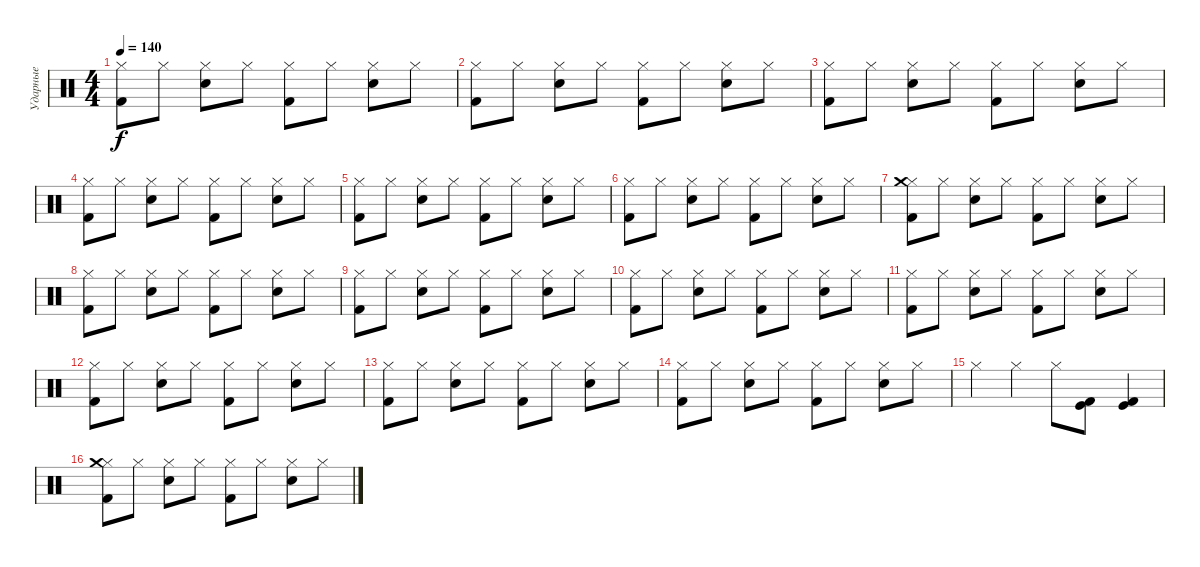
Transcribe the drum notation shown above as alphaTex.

\track ("Ударные" "Ударные") {instrument percussion}
\staff {score}
\articulation defaults
\ts (4 4)
\tempo 140
\clef neutral
\ks c
("Hi-Hat (closed)" "Kick (hit) 2").8{dy f} "Hi-Hat (closed)".8 ("Hi-Hat (closed)" "Snare (hit) 2").8 "Hi-Hat (closed)".8 ("Hi-Hat (closed)" "Kick (hit) 2").8 "Hi-Hat (closed)".8 ("Hi-Hat (closed)" "Snare (hit) 2").8 "Hi-Hat (closed)".8 |
("Hi-Hat (closed)" "Kick (hit) 2").8 "Hi-Hat (closed)".8 ("Hi-Hat (closed)" "Snare (hit) 2").8 "Hi-Hat (closed)".8 ("Hi-Hat (closed)" "Kick (hit) 2").8 "Hi-Hat (closed)".8 ("Hi-Hat (closed)" "Snare (hit) 2").8 "Hi-Hat (closed)".8 |
("Hi-Hat (closed)" "Kick (hit) 2").8 "Hi-Hat (closed)".8 ("Hi-Hat (closed)" "Snare (hit) 2").8 "Hi-Hat (closed)".8 ("Hi-Hat (closed)" "Kick (hit) 2").8 "Hi-Hat (closed)".8 ("Hi-Hat (closed)" "Snare (hit) 2").8 "Hi-Hat (closed)".8 |
("Hi-Hat (closed)" "Kick (hit) 2").8 "Hi-Hat (closed)".8 ("Hi-Hat (closed)" "Snare (hit) 2").8 "Hi-Hat (closed)".8 ("Hi-Hat (closed)" "Kick (hit) 2").8 "Hi-Hat (closed)".8 ("Hi-Hat (closed)" "Snare (hit) 2").8 "Hi-Hat (closed)".8 |
("Hi-Hat (closed)" "Kick (hit) 2").8 "Hi-Hat (closed)".8 ("Hi-Hat (closed)" "Snare (hit) 2").8 "Hi-Hat (closed)".8 ("Hi-Hat (closed)" "Kick (hit) 2").8 "Hi-Hat (closed)".8 ("Hi-Hat (closed)" "Snare (hit) 2").8 "Hi-Hat (closed)".8 |
("Hi-Hat (closed)" "Kick (hit) 2").8 "Hi-Hat (closed)".8 ("Hi-Hat (closed)" "Snare (hit) 2").8 "Hi-Hat (closed)".8 ("Hi-Hat (closed)" "Kick (hit) 2").8 "Hi-Hat (closed)".8 ("Hi-Hat (closed)" "Snare (hit) 2").8 "Hi-Hat (closed)".8 |
("Hi-Hat (closed)" "Kick (hit) 2" "Crash medium (hit)").8 "Hi-Hat (closed)".8 ("Hi-Hat (closed)" "Snare (hit) 2").8 "Hi-Hat (closed)".8 ("Hi-Hat (closed)" "Kick (hit) 2").8 "Hi-Hat (closed)".8 ("Hi-Hat (closed)" "Snare (hit) 2").8 "Hi-Hat (closed)".8 |
("Hi-Hat (closed)" "Kick (hit) 2").8 "Hi-Hat (closed)".8 ("Hi-Hat (closed)" "Snare (hit) 2").8 "Hi-Hat (closed)".8 ("Hi-Hat (closed)" "Kick (hit) 2").8 "Hi-Hat (closed)".8 ("Hi-Hat (closed)" "Snare (hit) 2").8 "Hi-Hat (closed)".8 |
("Hi-Hat (closed)" "Kick (hit) 2").8 "Hi-Hat (closed)".8 ("Hi-Hat (closed)" "Snare (hit) 2").8 "Hi-Hat (closed)".8 ("Hi-Hat (closed)" "Kick (hit) 2").8 "Hi-Hat (closed)".8 ("Hi-Hat (closed)" "Snare (hit) 2").8 "Hi-Hat (closed)".8 |
("Hi-Hat (closed)" "Kick (hit) 2").8 "Hi-Hat (closed)".8 ("Hi-Hat (closed)" "Snare (hit) 2").8 "Hi-Hat (closed)".8 ("Hi-Hat (closed)" "Kick (hit) 2").8 "Hi-Hat (closed)".8 ("Hi-Hat (closed)" "Snare (hit) 2").8 "Hi-Hat (closed)".8 |
("Hi-Hat (closed)" "Kick (hit) 2").8 "Hi-Hat (closed)".8 ("Hi-Hat (closed)" "Snare (hit) 2").8 "Hi-Hat (closed)".8 ("Hi-Hat (closed)" "Kick (hit) 2").8 "Hi-Hat (closed)".8 ("Hi-Hat (closed)" "Snare (hit) 2").8 "Hi-Hat (closed)".8 |
("Hi-Hat (closed)" "Kick (hit) 2").8 "Hi-Hat (closed)".8 ("Hi-Hat (closed)" "Snare (hit) 2").8 "Hi-Hat (closed)".8 ("Hi-Hat (closed)" "Kick (hit) 2").8 "Hi-Hat (closed)".8 ("Hi-Hat (closed)" "Snare (hit) 2").8 "Hi-Hat (closed)".8 |
("Hi-Hat (closed)" "Kick (hit) 2").8 "Hi-Hat (closed)".8 ("Hi-Hat (closed)" "Snare (hit) 2").8 "Hi-Hat (closed)".8 ("Hi-Hat (closed)" "Kick (hit) 2").8 "Hi-Hat (closed)".8 ("Hi-Hat (closed)" "Snare (hit) 2").8 "Hi-Hat (closed)".8 |
("Hi-Hat (closed)" "Kick (hit) 2").8 "Hi-Hat (closed)".8 ("Hi-Hat (closed)" "Snare (hit) 2").8 "Hi-Hat (closed)".8 ("Hi-Hat (closed)" "Kick (hit) 2").8 "Hi-Hat (closed)".8 ("Hi-Hat (closed)" "Snare (hit) 2").8 "Hi-Hat (closed)".8 |
"Hi-Hat (closed)".4 "Hi-Hat (closed)".4 "Hi-Hat (closed)".8 ("Kick (hit)" "Kick (hit) 2").8 ("Kick (hit) 2" "Kick (hit)").4 |
("Hi-Hat (closed)" "Kick (hit) 2" "Crash medium (hit)").8 "Hi-Hat (closed)".8 ("Hi-Hat (closed)" "Snare (hit) 2").8 "Hi-Hat (closed)".8 ("Hi-Hat (closed)" "Kick (hit) 2").8 "Hi-Hat (closed)".8 ("Hi-Hat (closed)" "Snare (hit) 2").8 "Hi-Hat (closed)".8
